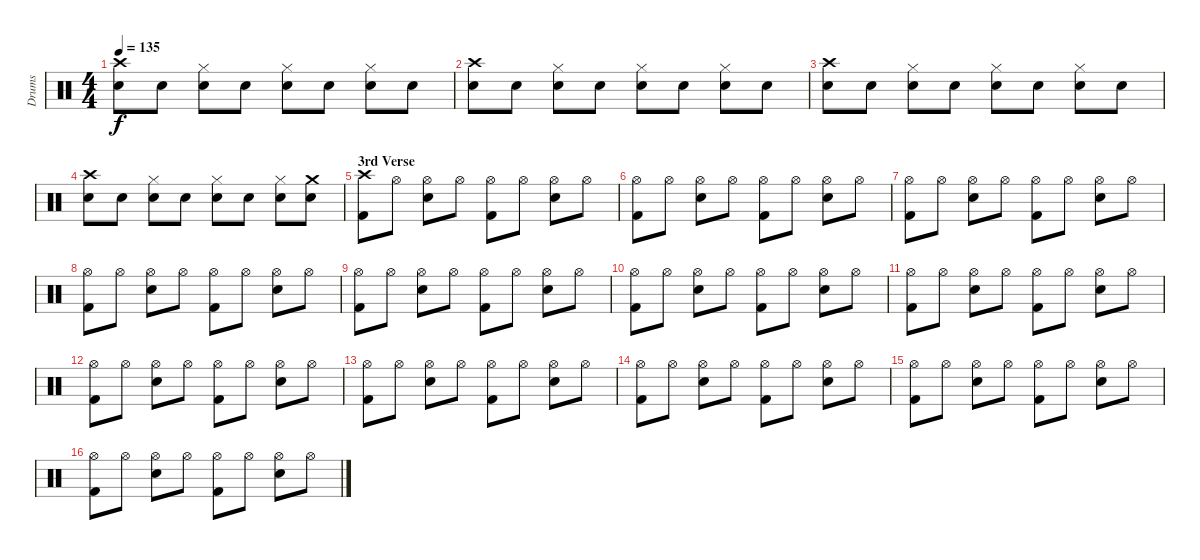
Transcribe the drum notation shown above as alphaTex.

\track ("Drums" "Drums") {instrument percussion}
\staff {score}
\articulation defaults
\ts (4 4)
\tempo 135
\clef neutral
\ks c
("Crash high (hit)" "Snare (hit) 2").8{dy f} "Snare (hit) 2".8 ("Hi-Hat (closed)" "Snare (hit) 2").8 "Snare (hit) 2".8 ("Hi-Hat (closed)" "Snare (hit) 2").8 "Snare (hit) 2".8 ("Hi-Hat (closed)" "Snare (hit) 2").8 "Snare (hit) 2".8 |
("Crash high (hit)" "Snare (hit) 2").8 "Snare (hit) 2".8 ("Hi-Hat (closed)" "Snare (hit) 2").8 "Snare (hit) 2".8 ("Hi-Hat (closed)" "Snare (hit) 2").8 "Snare (hit) 2".8 ("Hi-Hat (closed)" "Snare (hit) 2").8 "Snare (hit) 2".8 |
("Crash high (hit)" "Snare (hit) 2").8 "Snare (hit) 2".8 ("Hi-Hat (closed)" "Snare (hit) 2").8 "Snare (hit) 2".8 ("Hi-Hat (closed)" "Snare (hit) 2").8 "Snare (hit) 2".8 ("Hi-Hat (closed)" "Snare (hit) 2").8 "Snare (hit) 2".8 |
("Crash high (hit)" "Snare (hit) 2").8 "Snare (hit) 2".8 ("Hi-Hat (closed)" "Snare (hit) 2").8 "Snare (hit) 2".8 ("Hi-Hat (closed)" "Snare (hit) 2").8 "Snare (hit) 2".8 ("Hi-Hat (closed)" "Snare (hit) 2").8 ("Crash medium (hit)" "Snare (hit) 2").8 |
\section ("" "3rd Verse")
("Crash high (hit)" "Kick (hit) 2").8 "Hi-Hat (open)".8 ("Hi-Hat (open)" "Snare (hit) 2").8 "Hi-Hat (open)".8 ("Hi-Hat (open)" "Kick (hit) 2").8 "Hi-Hat (open)".8 ("Hi-Hat (open)" "Snare (hit) 2").8 "Hi-Hat (open)".8 |
("Hi-Hat (open)" "Kick (hit) 2").8 "Hi-Hat (open)".8 ("Hi-Hat (open)" "Snare (hit) 2").8 "Hi-Hat (open)".8 ("Hi-Hat (open)" "Kick (hit) 2").8 "Hi-Hat (open)".8 ("Hi-Hat (open)" "Snare (hit) 2").8 "Hi-Hat (open)".8 |
("Hi-Hat (open)" "Kick (hit) 2").8 "Hi-Hat (open)".8 ("Hi-Hat (open)" "Snare (hit) 2").8 "Hi-Hat (open)".8 ("Hi-Hat (open)" "Kick (hit) 2").8 "Hi-Hat (open)".8 ("Hi-Hat (open)" "Snare (hit) 2").8 "Hi-Hat (open)".8 |
("Hi-Hat (open)" "Kick (hit) 2").8 "Hi-Hat (open)".8 ("Hi-Hat (open)" "Snare (hit) 2").8 "Hi-Hat (open)".8 ("Hi-Hat (open)" "Kick (hit) 2").8 "Hi-Hat (open)".8 ("Hi-Hat (open)" "Snare (hit) 2").8 "Hi-Hat (open)".8 |
("Hi-Hat (open)" "Kick (hit) 2").8 "Hi-Hat (open)".8 ("Hi-Hat (open)" "Snare (hit) 2").8 "Hi-Hat (open)".8 ("Hi-Hat (open)" "Kick (hit) 2").8 "Hi-Hat (open)".8 ("Hi-Hat (open)" "Snare (hit) 2").8 "Hi-Hat (open)".8 |
("Hi-Hat (open)" "Kick (hit) 2").8 "Hi-Hat (open)".8 ("Hi-Hat (open)" "Snare (hit) 2").8 "Hi-Hat (open)".8 ("Hi-Hat (open)" "Kick (hit) 2").8 "Hi-Hat (open)".8 ("Hi-Hat (open)" "Snare (hit) 2").8 "Hi-Hat (open)".8 |
("Hi-Hat (open)" "Kick (hit) 2").8 "Hi-Hat (open)".8 ("Hi-Hat (open)" "Snare (hit) 2").8 "Hi-Hat (open)".8 ("Hi-Hat (open)" "Kick (hit) 2").8 "Hi-Hat (open)".8 ("Hi-Hat (open)" "Snare (hit) 2").8 "Hi-Hat (open)".8 |
("Hi-Hat (open)" "Kick (hit) 2").8 "Hi-Hat (open)".8 ("Hi-Hat (open)" "Snare (hit) 2").8 "Hi-Hat (open)".8 ("Hi-Hat (open)" "Kick (hit) 2").8 "Hi-Hat (open)".8 ("Hi-Hat (open)" "Snare (hit) 2").8 "Hi-Hat (open)".8 |
("Hi-Hat (open)" "Kick (hit) 2").8 "Hi-Hat (open)".8 ("Hi-Hat (open)" "Snare (hit) 2").8 "Hi-Hat (open)".8 ("Hi-Hat (open)" "Kick (hit) 2").8 "Hi-Hat (open)".8 ("Hi-Hat (open)" "Snare (hit) 2").8 "Hi-Hat (open)".8 |
("Hi-Hat (open)" "Kick (hit) 2").8 "Hi-Hat (open)".8 ("Hi-Hat (open)" "Snare (hit) 2").8 "Hi-Hat (open)".8 ("Hi-Hat (open)" "Kick (hit) 2").8 "Hi-Hat (open)".8 ("Hi-Hat (open)" "Snare (hit) 2").8 "Hi-Hat (open)".8 |
("Hi-Hat (open)" "Kick (hit) 2").8 "Hi-Hat (open)".8 ("Hi-Hat (open)" "Snare (hit) 2").8 "Hi-Hat (open)".8 ("Hi-Hat (open)" "Kick (hit) 2").8 "Hi-Hat (open)".8 ("Hi-Hat (open)" "Snare (hit) 2").8 "Hi-Hat (open)".8 |
("Hi-Hat (open)" "Kick (hit) 2").8 "Hi-Hat (open)".8 ("Hi-Hat (open)" "Snare (hit) 2").8 "Hi-Hat (open)".8 ("Hi-Hat (open)" "Kick (hit) 2").8 "Hi-Hat (open)".8 ("Hi-Hat (open)" "Snare (hit) 2").8 "Hi-Hat (open)".8
